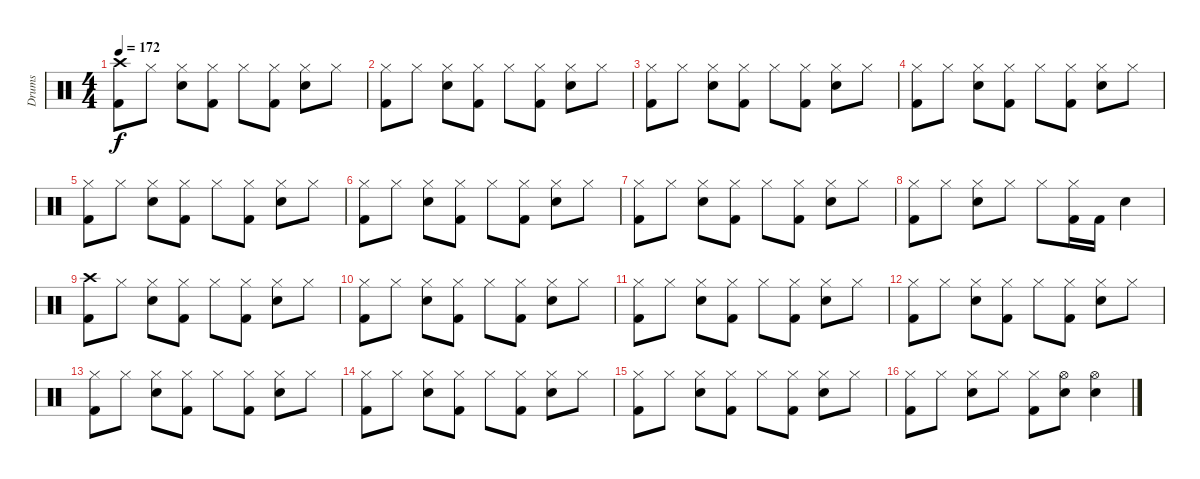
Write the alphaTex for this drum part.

\track ("Drums" "Drums") {instrument percussion}
\staff {score}
\articulation defaults
\ts (4 4)
\tempo 172
\clef neutral
\ks c
("Crash high (hit)" "Kick (hit) 2").8{dy f} "Hi-Hat (closed)".8 ("Hi-Hat (closed)" "Electric Snare (hit)").8 ("Hi-Hat (closed)" "Kick (hit) 2").8 "Hi-Hat (closed)".8 ("Hi-Hat (closed)" "Kick (hit) 2").8 ("Hi-Hat (closed)" "Electric Snare (hit)").8 "Hi-Hat (closed)".8 |
("Hi-Hat (closed)" "Kick (hit) 2").8 "Hi-Hat (closed)".8 ("Hi-Hat (closed)" "Electric Snare (hit)").8 ("Hi-Hat (closed)" "Kick (hit) 2").8 "Hi-Hat (closed)".8 ("Hi-Hat (closed)" "Kick (hit) 2").8 ("Hi-Hat (closed)" "Electric Snare (hit)").8 "Hi-Hat (closed)".8 |
("Hi-Hat (closed)" "Kick (hit) 2").8 "Hi-Hat (closed)".8 ("Hi-Hat (closed)" "Electric Snare (hit)").8 ("Hi-Hat (closed)" "Kick (hit) 2").8 "Hi-Hat (closed)".8 ("Hi-Hat (closed)" "Kick (hit) 2").8 ("Hi-Hat (closed)" "Electric Snare (hit)").8 "Hi-Hat (closed)".8 |
("Hi-Hat (closed)" "Kick (hit) 2").8 "Hi-Hat (closed)".8 ("Hi-Hat (closed)" "Electric Snare (hit)").8 ("Hi-Hat (closed)" "Kick (hit) 2").8 "Hi-Hat (closed)".8 ("Hi-Hat (closed)" "Kick (hit) 2").8 ("Hi-Hat (closed)" "Electric Snare (hit)").8 "Hi-Hat (closed)".8 |
("Hi-Hat (closed)" "Kick (hit) 2").8 "Hi-Hat (closed)".8 ("Hi-Hat (closed)" "Electric Snare (hit)").8 ("Hi-Hat (closed)" "Kick (hit) 2").8 "Hi-Hat (closed)".8 ("Hi-Hat (closed)" "Kick (hit) 2").8 ("Hi-Hat (closed)" "Electric Snare (hit)").8 "Hi-Hat (closed)".8 |
("Hi-Hat (closed)" "Kick (hit) 2").8 "Hi-Hat (closed)".8 ("Hi-Hat (closed)" "Electric Snare (hit)").8 ("Hi-Hat (closed)" "Kick (hit) 2").8 "Hi-Hat (closed)".8 ("Hi-Hat (closed)" "Kick (hit) 2").8 ("Hi-Hat (closed)" "Electric Snare (hit)").8 "Hi-Hat (closed)".8 |
("Hi-Hat (closed)" "Kick (hit) 2").8 "Hi-Hat (closed)".8 ("Hi-Hat (closed)" "Electric Snare (hit)").8 ("Hi-Hat (closed)" "Kick (hit) 2").8 "Hi-Hat (closed)".8 ("Hi-Hat (closed)" "Kick (hit) 2").8 ("Hi-Hat (closed)" "Electric Snare (hit)").8 "Hi-Hat (closed)".8 |
("Hi-Hat (closed)" "Kick (hit) 2").8 "Hi-Hat (closed)".8 ("Hi-Hat (closed)" "Electric Snare (hit)").8 "Hi-Hat (closed)".8 "Hi-Hat (closed)".8 ("Hi-Hat (closed)" "Kick (hit) 2").16 "Kick (hit) 2".16 "Electric Snare (hit)".4 |
("Crash high (hit)" "Kick (hit) 2").8 "Hi-Hat (closed)".8 ("Hi-Hat (closed)" "Electric Snare (hit)").8 ("Hi-Hat (closed)" "Kick (hit) 2").8 "Hi-Hat (closed)".8 ("Hi-Hat (closed)" "Kick (hit) 2").8 ("Hi-Hat (closed)" "Electric Snare (hit)").8 "Hi-Hat (closed)".8 |
("Hi-Hat (closed)" "Kick (hit) 2").8 "Hi-Hat (closed)".8 ("Hi-Hat (closed)" "Electric Snare (hit)").8 ("Hi-Hat (closed)" "Kick (hit) 2").8 "Hi-Hat (closed)".8 ("Hi-Hat (closed)" "Kick (hit) 2").8 ("Hi-Hat (closed)" "Electric Snare (hit)").8 "Hi-Hat (closed)".8 |
("Hi-Hat (closed)" "Kick (hit) 2").8 "Hi-Hat (closed)".8 ("Hi-Hat (closed)" "Electric Snare (hit)").8 ("Hi-Hat (closed)" "Kick (hit) 2").8 "Hi-Hat (closed)".8 ("Hi-Hat (closed)" "Kick (hit) 2").8 ("Hi-Hat (closed)" "Electric Snare (hit)").8 "Hi-Hat (closed)".8 |
("Hi-Hat (closed)" "Kick (hit) 2").8 "Hi-Hat (closed)".8 ("Hi-Hat (closed)" "Electric Snare (hit)").8 ("Hi-Hat (closed)" "Kick (hit) 2").8 "Hi-Hat (closed)".8 ("Hi-Hat (closed)" "Kick (hit) 2").8 ("Hi-Hat (closed)" "Electric Snare (hit)").8 "Hi-Hat (closed)".8 |
("Hi-Hat (closed)" "Kick (hit) 2").8 "Hi-Hat (closed)".8 ("Hi-Hat (closed)" "Electric Snare (hit)").8 ("Hi-Hat (closed)" "Kick (hit) 2").8 "Hi-Hat (closed)".8 ("Hi-Hat (closed)" "Kick (hit) 2").8 ("Hi-Hat (closed)" "Electric Snare (hit)").8 "Hi-Hat (closed)".8 |
("Hi-Hat (closed)" "Kick (hit) 2").8 "Hi-Hat (closed)".8 ("Hi-Hat (closed)" "Electric Snare (hit)").8 ("Hi-Hat (closed)" "Kick (hit) 2").8 "Hi-Hat (closed)".8 ("Hi-Hat (closed)" "Kick (hit) 2").8 ("Hi-Hat (closed)" "Electric Snare (hit)").8 "Hi-Hat (closed)".8 |
("Hi-Hat (closed)" "Kick (hit) 2").8 "Hi-Hat (closed)".8 ("Hi-Hat (closed)" "Electric Snare (hit)").8 ("Hi-Hat (closed)" "Kick (hit) 2").8 "Hi-Hat (closed)".8 ("Hi-Hat (closed)" "Kick (hit) 2").8 ("Hi-Hat (closed)" "Electric Snare (hit)").8 "Hi-Hat (closed)".8 |
("Hi-Hat (closed)" "Kick (hit) 2").8 "Hi-Hat (closed)".8 ("Hi-Hat (closed)" "Electric Snare (hit)").8 "Hi-Hat (closed)".8 ("Hi-Hat (closed)" "Kick (hit) 2").8 ("Hi-Hat (open)" "Electric Snare (hit)").8 ("Hi-Hat (open)" "Electric Snare (hit)").4
